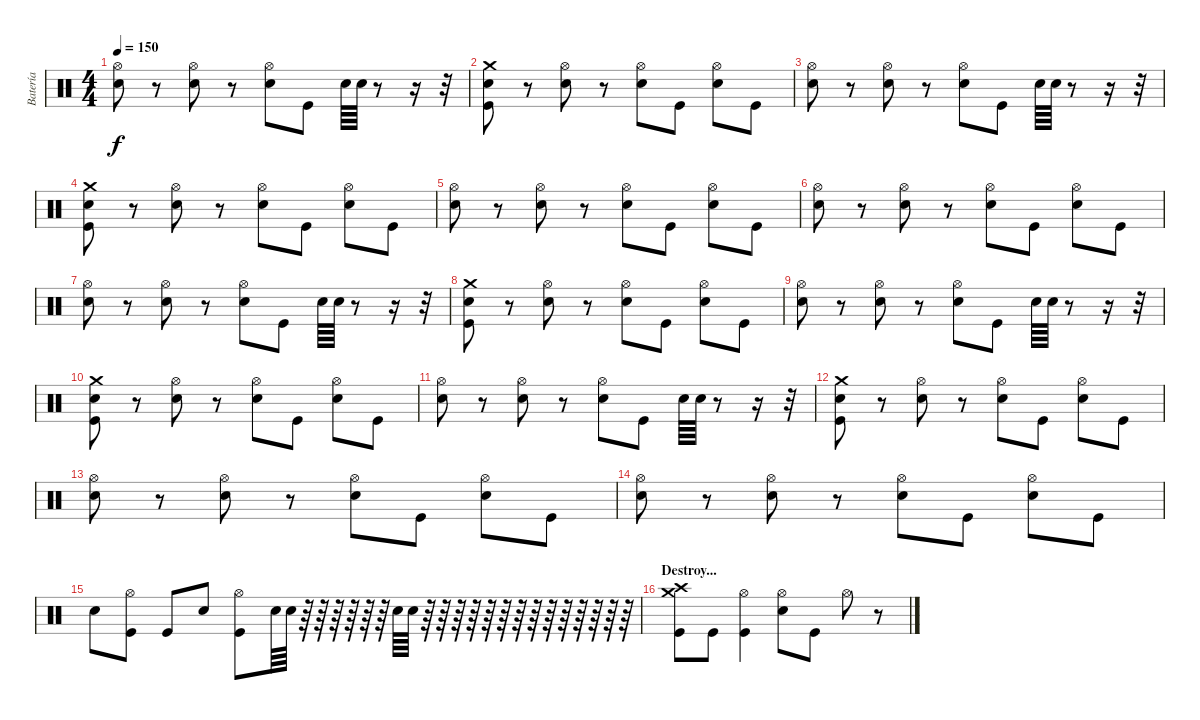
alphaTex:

\track ("Batería" "Batería") {instrument percussion}
\staff {score}
\articulation defaults
\ts (4 4)
\tempo 150
\clef neutral
\ks c
("Hi-Hat (open)" "Snare (hit) 2").8{dy f} r.8 ("Hi-Hat (open)" "Snare (hit) 2").8 r.8 ("Hi-Hat (open)" "Snare (hit) 2").8 "Kick (hit)".8 "Snare (hit) 2".64 "Snare (hit) 2".64 r.8 r.16 r.32 |
("Crash medium (hit)" "Snare (hit) 2" "Kick (hit)").8 r.8 ("Hi-Hat (open)" "Snare (hit) 2").8 r.8 ("Hi-Hat (open)" "Snare (hit) 2").8 "Kick (hit)".8 ("Hi-Hat (open)" "Snare (hit) 2").8 "Kick (hit)".8 |
("Hi-Hat (open)" "Snare (hit) 2").8 r.8 ("Hi-Hat (open)" "Snare (hit) 2").8 r.8 ("Hi-Hat (open)" "Snare (hit) 2").8 "Kick (hit)".8 "Snare (hit) 2".64 "Snare (hit) 2".64 r.8 r.16 r.32 |
("Crash medium (hit)" "Snare (hit) 2" "Kick (hit)").8 r.8 ("Hi-Hat (open)" "Snare (hit) 2").8 r.8 ("Hi-Hat (open)" "Snare (hit) 2").8 "Kick (hit)".8 ("Hi-Hat (open)" "Snare (hit) 2").8 "Kick (hit)".8 |
("Hi-Hat (open)" "Snare (hit) 2").8 r.8 ("Hi-Hat (open)" "Snare (hit) 2").8 r.8 ("Hi-Hat (open)" "Snare (hit) 2").8 "Kick (hit)".8 ("Hi-Hat (open)" "Snare (hit) 2").8 "Kick (hit)".8 |
("Hi-Hat (open)" "Snare (hit) 2").8 r.8 ("Hi-Hat (open)" "Snare (hit) 2").8 r.8 ("Hi-Hat (open)" "Snare (hit) 2").8 "Kick (hit)".8 ("Hi-Hat (open)" "Snare (hit) 2").8 "Kick (hit)".8 |
("Hi-Hat (open)" "Snare (hit) 2").8 r.8 ("Hi-Hat (open)" "Snare (hit) 2").8 r.8 ("Hi-Hat (open)" "Snare (hit) 2").8 "Kick (hit)".8 "Snare (hit) 2".64 "Snare (hit) 2".64 r.8 r.16 r.32 |
("Crash medium (hit)" "Snare (hit) 2" "Kick (hit)").8 r.8 ("Hi-Hat (open)" "Snare (hit) 2").8 r.8 ("Hi-Hat (open)" "Snare (hit) 2").8 "Kick (hit)".8 ("Hi-Hat (open)" "Snare (hit) 2").8 "Kick (hit)".8 |
("Hi-Hat (open)" "Snare (hit) 2").8 r.8 ("Hi-Hat (open)" "Snare (hit) 2").8 r.8 ("Hi-Hat (open)" "Snare (hit) 2").8 "Kick (hit)".8 "Snare (hit) 2".64 "Snare (hit) 2".64 r.8 r.16 r.32 |
("Crash medium (hit)" "Snare (hit) 2" "Kick (hit)").8 r.8 ("Hi-Hat (open)" "Snare (hit) 2").8 r.8 ("Hi-Hat (open)" "Snare (hit) 2").8 "Kick (hit)".8 ("Hi-Hat (open)" "Snare (hit) 2").8 "Kick (hit)".8 |
("Hi-Hat (open)" "Snare (hit) 2").8 r.8 ("Hi-Hat (open)" "Snare (hit) 2").8 r.8 ("Hi-Hat (open)" "Snare (hit) 2").8 "Kick (hit)".8 "Snare (hit) 2".64 "Snare (hit) 2".64 r.8 r.16 r.32 |
("Crash medium (hit)" "Snare (hit) 2" "Kick (hit)").8 r.8 ("Hi-Hat (open)" "Snare (hit) 2").8 r.8 ("Hi-Hat (open)" "Snare (hit) 2").8 "Kick (hit)".8 ("Hi-Hat (open)" "Snare (hit) 2").8 "Kick (hit)".8 |
("Hi-Hat (open)" "Snare (hit) 2").8 r.8 ("Hi-Hat (open)" "Snare (hit) 2").8 r.8 ("Hi-Hat (open)" "Snare (hit) 2").8 "Kick (hit)".8 ("Hi-Hat (open)" "Snare (hit) 2").8 "Kick (hit)".8 |
("Hi-Hat (open)" "Snare (hit) 2").8 r.8 ("Hi-Hat (open)" "Snare (hit) 2").8 r.8 ("Hi-Hat (open)" "Snare (hit) 2").8 "Kick (hit)".8 ("Hi-Hat (open)" "Snare (hit) 2").8 "Kick (hit)".8 |
"Snare (hit) 2".8 ("Hi-Hat (open)" "Kick (hit)").8 "Kick (hit)".8 "Snare (hit) 2".8 ("Hi-Hat (open)" "Kick (hit)").8 "Snare (hit) 2".64 "Snare (hit) 2".64 r.64 r.64 r.64 r.64 r.64 r.64 "Snare (hit) 2".64 "Snare (hit) 2".64 r.64 r.64 r.64 r.64 r.64 r.64 r.64 r.64 r.64 r.64 r.64 r.64 r.64 r.64 |
\section ("" "Destroy...")
("Crash high (hit)" "Crash medium (hit)" "Kick (hit)").8 "Kick (hit)".8 ("Hi-Hat (open)" "Kick (hit)").4 ("Hi-Hat (open)" "Snare (hit) 2").8 "Kick (hit)".8 "Hi-Hat (open)".8 r.8
